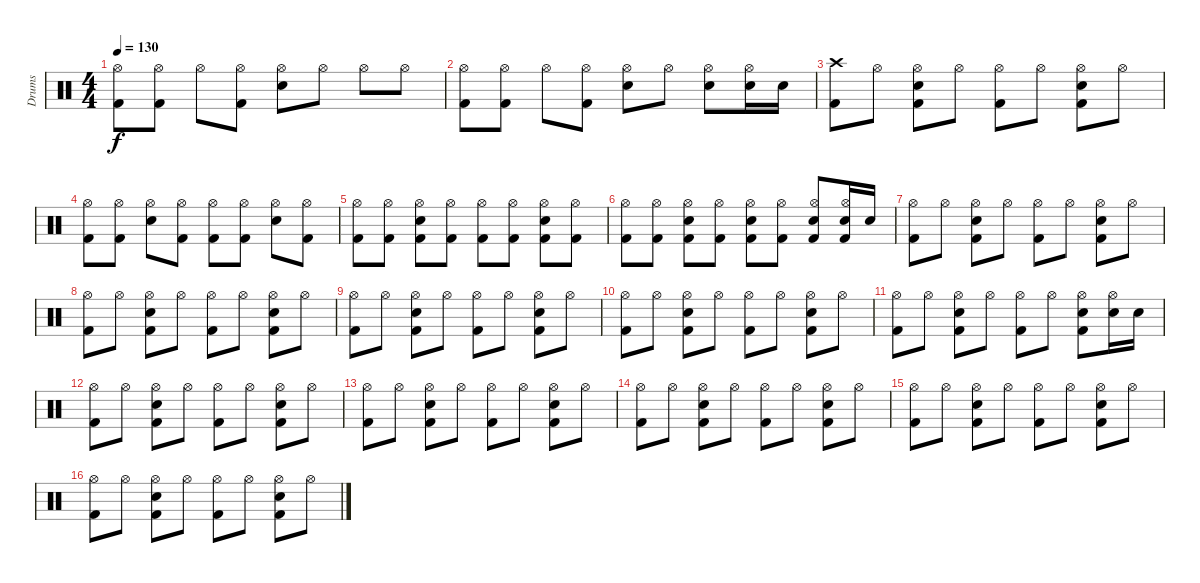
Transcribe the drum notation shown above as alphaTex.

\track ("Drums" "Drums") {instrument percussion}
\staff {score}
\articulation defaults
\ts (4 4)
\tempo 130
\clef neutral
\ks c
("Kick (hit) 2" "Hi-Hat (open)").8{dy f} ("Kick (hit) 2" "Hi-Hat (open)").8 "Hi-Hat (open)".8 ("Kick (hit) 2" "Hi-Hat (open)").8 ("Electric Snare (hit)" "Hi-Hat (open)").8 "Hi-Hat (open)".8 "Hi-Hat (open)".8 "Hi-Hat (open)".8 |
("Kick (hit) 2" "Hi-Hat (open)").8 ("Kick (hit) 2" "Hi-Hat (open)").8 "Hi-Hat (open)".8 ("Kick (hit) 2" "Hi-Hat (open)").8 ("Electric Snare (hit)" "Hi-Hat (open)").8 "Hi-Hat (open)".8 ("Electric Snare (hit)" "Hi-Hat (open)").8 ("Electric Snare (hit)" "Hi-Hat (open)").16 "Electric Snare (hit)".16 |
("Crash high (hit)" "Kick (hit) 2").8 "Hi-Hat (open)".8 ("Hi-Hat (open)" "Electric Snare (hit)" "Kick (hit) 2").8 "Hi-Hat (open)".8 ("Hi-Hat (open)" "Kick (hit) 2").8 "Hi-Hat (open)".8 ("Hi-Hat (open)" "Electric Snare (hit)" "Kick (hit) 2").8 "Hi-Hat (open)".8 |
("Kick (hit) 2" "Hi-Hat (open)").8 ("Kick (hit) 2" "Hi-Hat (open)").8 ("Electric Snare (hit)" "Hi-Hat (open)").8 ("Kick (hit) 2" "Hi-Hat (open)").8 ("Kick (hit) 2" "Hi-Hat (open)").8 ("Kick (hit) 2" "Hi-Hat (open)").8 ("Electric Snare (hit)" "Hi-Hat (open)").8 ("Kick (hit) 2" "Hi-Hat (open)").8 |
("Hi-Hat (open)" "Kick (hit) 2").8 ("Hi-Hat (open)" "Kick (hit) 2").8 ("Hi-Hat (open)" "Electric Snare (hit)" "Kick (hit) 2").8 ("Hi-Hat (open)" "Kick (hit) 2").8 ("Hi-Hat (open)" "Kick (hit) 2").8 ("Hi-Hat (open)" "Kick (hit) 2").8 ("Hi-Hat (open)" "Electric Snare (hit)" "Kick (hit) 2").8 ("Hi-Hat (open)" "Kick (hit) 2").8 |
("Hi-Hat (open)" "Kick (hit) 2").8 ("Hi-Hat (open)" "Kick (hit) 2").8 ("Hi-Hat (open)" "Electric Snare (hit)" "Kick (hit) 2").8 ("Hi-Hat (open)" "Kick (hit) 2").8 ("Electric Snare (hit)" "Hi-Hat (open)" "Kick (hit) 2").8 ("Hi-Hat (open)" "Kick (hit) 2").8 ("Hi-Hat (open)" "Electric Snare (hit)" "Kick (hit) 2").8 ("Electric Snare (hit)" "Hi-Hat (open)" "Kick (hit) 2").16 "Electric Snare (hit)".16 |
("Kick (hit) 2" "Hi-Hat (open)").8 "Hi-Hat (open)".8 ("Electric Snare (hit)" "Kick (hit) 2" "Hi-Hat (open)").8 "Hi-Hat (open)".8 ("Kick (hit) 2" "Hi-Hat (open)").8 "Hi-Hat (open)".8 ("Electric Snare (hit)" "Kick (hit) 2" "Hi-Hat (open)").8 "Hi-Hat (open)".8 |
("Kick (hit) 2" "Hi-Hat (open)").8 "Hi-Hat (open)".8 ("Electric Snare (hit)" "Kick (hit) 2" "Hi-Hat (open)").8 "Hi-Hat (open)".8 ("Kick (hit) 2" "Hi-Hat (open)").8 "Hi-Hat (open)".8 ("Electric Snare (hit)" "Kick (hit) 2" "Hi-Hat (open)").8 "Hi-Hat (open)".8 |
("Kick (hit) 2" "Hi-Hat (open)").8 "Hi-Hat (open)".8 ("Electric Snare (hit)" "Kick (hit) 2" "Hi-Hat (open)").8 "Hi-Hat (open)".8 ("Kick (hit) 2" "Hi-Hat (open)").8 "Hi-Hat (open)".8 ("Electric Snare (hit)" "Kick (hit) 2" "Hi-Hat (open)").8 "Hi-Hat (open)".8 |
("Kick (hit) 2" "Hi-Hat (open)").8 "Hi-Hat (open)".8 ("Electric Snare (hit)" "Kick (hit) 2" "Hi-Hat (open)").8 "Hi-Hat (open)".8 ("Kick (hit) 2" "Hi-Hat (open)").8 "Hi-Hat (open)".8 ("Electric Snare (hit)" "Kick (hit) 2" "Hi-Hat (open)").8 "Hi-Hat (open)".8 |
("Kick (hit) 2" "Hi-Hat (open)").8 "Hi-Hat (open)".8 ("Electric Snare (hit)" "Kick (hit) 2" "Hi-Hat (open)").8 "Hi-Hat (open)".8 ("Kick (hit) 2" "Hi-Hat (open)").8 "Hi-Hat (open)".8 ("Electric Snare (hit)" "Kick (hit) 2" "Hi-Hat (open)").8 ("Electric Snare (hit)" "Hi-Hat (open)").16 "Electric Snare (hit)".16 |
("Kick (hit) 2" "Hi-Hat (open)").8 "Hi-Hat (open)".8 ("Electric Snare (hit)" "Kick (hit) 2" "Hi-Hat (open)").8 "Hi-Hat (open)".8 ("Kick (hit) 2" "Hi-Hat (open)").8 "Hi-Hat (open)".8 ("Electric Snare (hit)" "Kick (hit) 2" "Hi-Hat (open)").8 "Hi-Hat (open)".8 |
("Kick (hit) 2" "Hi-Hat (open)").8 "Hi-Hat (open)".8 ("Electric Snare (hit)" "Kick (hit) 2" "Hi-Hat (open)").8 "Hi-Hat (open)".8 ("Kick (hit) 2" "Hi-Hat (open)").8 "Hi-Hat (open)".8 ("Electric Snare (hit)" "Kick (hit) 2" "Hi-Hat (open)").8 "Hi-Hat (open)".8 |
("Kick (hit) 2" "Hi-Hat (open)").8 "Hi-Hat (open)".8 ("Electric Snare (hit)" "Kick (hit) 2" "Hi-Hat (open)").8 "Hi-Hat (open)".8 ("Kick (hit) 2" "Hi-Hat (open)").8 "Hi-Hat (open)".8 ("Electric Snare (hit)" "Kick (hit) 2" "Hi-Hat (open)").8 "Hi-Hat (open)".8 |
("Kick (hit) 2" "Hi-Hat (open)").8 "Hi-Hat (open)".8 ("Electric Snare (hit)" "Kick (hit) 2" "Hi-Hat (open)").8 "Hi-Hat (open)".8 ("Kick (hit) 2" "Hi-Hat (open)").8 "Hi-Hat (open)".8 ("Electric Snare (hit)" "Kick (hit) 2" "Hi-Hat (open)").8 "Hi-Hat (open)".8 |
("Kick (hit) 2" "Hi-Hat (open)").8 "Hi-Hat (open)".8 ("Electric Snare (hit)" "Kick (hit) 2" "Hi-Hat (open)").8 "Hi-Hat (open)".8 ("Kick (hit) 2" "Hi-Hat (open)").8 "Hi-Hat (open)".8 ("Electric Snare (hit)" "Kick (hit) 2" "Hi-Hat (open)").8 "Hi-Hat (open)".8
